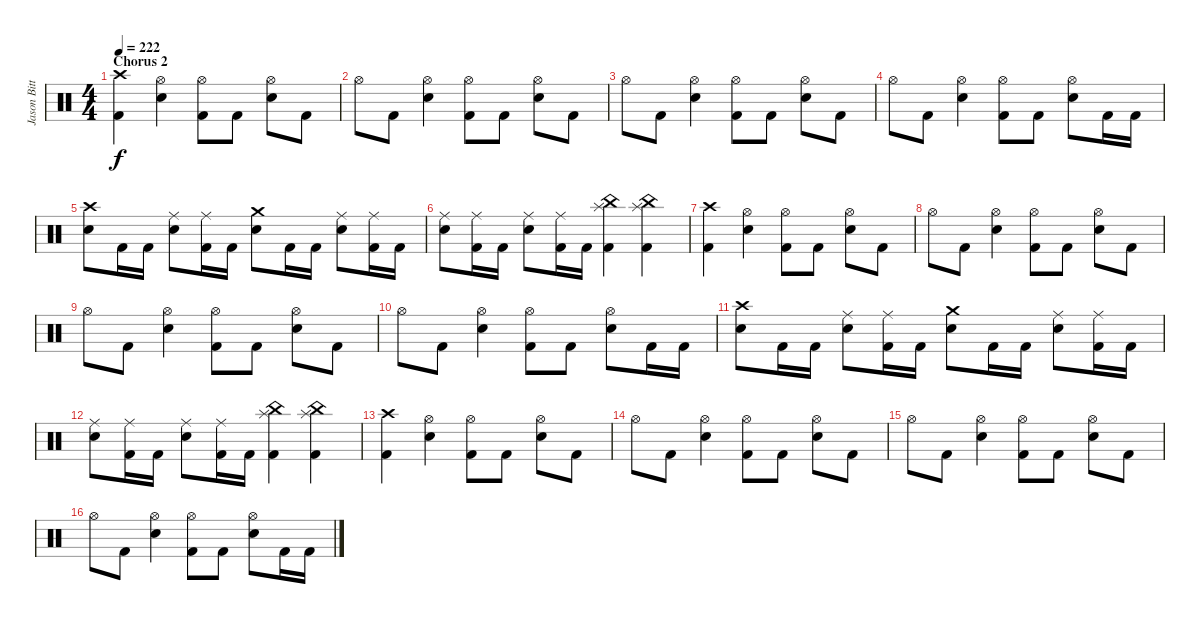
\track ("Jason Bittner" "Jason Bitt") {instrument percussion}
\staff {score}
\articulation defaults
\ts (4 4)
\section ("" "Chorus 2")
\tempo 222
\clef neutral
\ks c
("Crash high (hit)" "Kick (hit) 2").4{dy f} ("Hi-Hat (open)" "Electric Snare (hit)").4 ("Hi-Hat (open)" "Kick (hit) 2").8 "Kick (hit) 2".8 ("Hi-Hat (open)" "Electric Snare (hit)").8 "Kick (hit) 2".8 |
"Hi-Hat (open)".8 "Kick (hit) 2".8 ("Hi-Hat (open)" "Electric Snare (hit)").4 ("Hi-Hat (open)" "Kick (hit) 2").8 "Kick (hit) 2".8 ("Hi-Hat (open)" "Electric Snare (hit)").8 "Kick (hit) 2".8 |
"Hi-Hat (open)".8 "Kick (hit) 2".8 ("Hi-Hat (open)" "Electric Snare (hit)").4 ("Hi-Hat (open)" "Kick (hit) 2").8 "Kick (hit) 2".8 ("Hi-Hat (open)" "Electric Snare (hit)").8 "Kick (hit) 2".8 |
"Hi-Hat (open)".8 "Kick (hit) 2".8 ("Hi-Hat (open)" "Electric Snare (hit)").4 ("Hi-Hat (open)" "Kick (hit) 2").8 "Kick (hit) 2".8 ("Hi-Hat (open)" "Electric Snare (hit)").8 "Kick (hit) 2".16 "Kick (hit) 2".16 |
("Crash high (hit)" "Electric Snare (hit)").8 "Kick (hit) 2".16 "Kick (hit) 2".16 ("Ride (middle)" "Electric Snare (hit)").8 ("Ride (middle)" "Kick (hit) 2").16 "Kick (hit) 2".16 ("Crash medium (hit)" "Electric Snare (hit)").8 "Kick (hit) 2".16 "Kick (hit) 2".16 ("Ride (middle)" "Electric Snare (hit)").8 ("Ride (middle)" "Kick (hit) 2").16 "Kick (hit) 2".16 |
("Ride (middle)" "Electric Snare (hit)").8 ("Ride (middle)" "Kick (hit) 2").16 "Kick (hit) 2".16 ("Ride (middle)" "Electric Snare (hit)").8 ("Ride (middle)" "Kick (hit) 2").16 "Kick (hit) 2".16 ("China (hit)" "Splash (hit)" "Kick (hit) 2").4 ("China (hit)" "Splash (hit)" "Kick (hit) 2").4 |
("Crash high (hit)" "Kick (hit) 2").4 ("Hi-Hat (open)" "Electric Snare (hit)").4 ("Hi-Hat (open)" "Kick (hit) 2").8 "Kick (hit) 2".8 ("Hi-Hat (open)" "Electric Snare (hit)").8 "Kick (hit) 2".8 |
"Hi-Hat (open)".8 "Kick (hit) 2".8 ("Hi-Hat (open)" "Electric Snare (hit)").4 ("Hi-Hat (open)" "Kick (hit) 2").8 "Kick (hit) 2".8 ("Hi-Hat (open)" "Electric Snare (hit)").8 "Kick (hit) 2".8 |
"Hi-Hat (open)".8 "Kick (hit) 2".8 ("Hi-Hat (open)" "Electric Snare (hit)").4 ("Hi-Hat (open)" "Kick (hit) 2").8 "Kick (hit) 2".8 ("Hi-Hat (open)" "Electric Snare (hit)").8 "Kick (hit) 2".8 |
"Hi-Hat (open)".8 "Kick (hit) 2".8 ("Hi-Hat (open)" "Electric Snare (hit)").4 ("Hi-Hat (open)" "Kick (hit) 2").8 "Kick (hit) 2".8 ("Hi-Hat (open)" "Electric Snare (hit)").8 "Kick (hit) 2".16 "Kick (hit) 2".16 |
("Crash high (hit)" "Electric Snare (hit)").8 "Kick (hit) 2".16 "Kick (hit) 2".16 ("Ride (middle)" "Electric Snare (hit)").8 ("Ride (middle)" "Kick (hit) 2").16 "Kick (hit) 2".16 ("Crash medium (hit)" "Electric Snare (hit)").8 "Kick (hit) 2".16 "Kick (hit) 2".16 ("Ride (middle)" "Electric Snare (hit)").8 ("Ride (middle)" "Kick (hit) 2").16 "Kick (hit) 2".16 |
("Ride (middle)" "Electric Snare (hit)").8 ("Ride (middle)" "Kick (hit) 2").16 "Kick (hit) 2".16 ("Ride (middle)" "Electric Snare (hit)").8 ("Ride (middle)" "Kick (hit) 2").16 "Kick (hit) 2".16 ("China (hit)" "Splash (hit)" "Kick (hit) 2").4 ("China (hit)" "Splash (hit)" "Kick (hit) 2").4 |
("Crash high (hit)" "Kick (hit) 2").4 ("Hi-Hat (open)" "Electric Snare (hit)").4 ("Hi-Hat (open)" "Kick (hit) 2").8 "Kick (hit) 2".8 ("Hi-Hat (open)" "Electric Snare (hit)").8 "Kick (hit) 2".8 |
"Hi-Hat (open)".8 "Kick (hit) 2".8 ("Hi-Hat (open)" "Electric Snare (hit)").4 ("Hi-Hat (open)" "Kick (hit) 2").8 "Kick (hit) 2".8 ("Hi-Hat (open)" "Electric Snare (hit)").8 "Kick (hit) 2".8 |
"Hi-Hat (open)".8 "Kick (hit) 2".8 ("Hi-Hat (open)" "Electric Snare (hit)").4 ("Hi-Hat (open)" "Kick (hit) 2").8 "Kick (hit) 2".8 ("Hi-Hat (open)" "Electric Snare (hit)").8 "Kick (hit) 2".8 |
"Hi-Hat (open)".8 "Kick (hit) 2".8 ("Hi-Hat (open)" "Electric Snare (hit)").4 ("Hi-Hat (open)" "Kick (hit) 2").8 "Kick (hit) 2".8 ("Hi-Hat (open)" "Electric Snare (hit)").8 "Kick (hit) 2".16 "Kick (hit) 2".16
